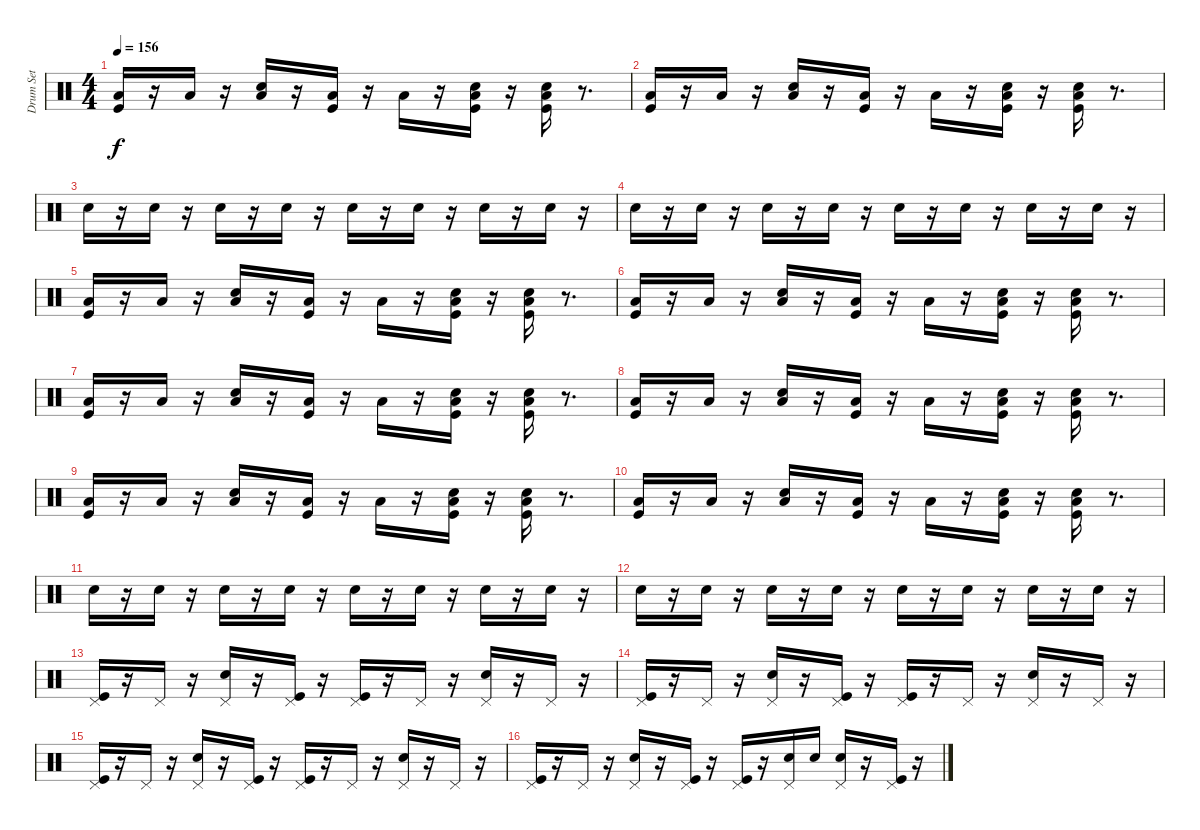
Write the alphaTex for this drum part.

\track ("Drum Set" "Drum Set") {instrument percussion}
\staff {score}
\articulation defaults
\ts (4 4)
\tempo 156
\clef neutral
\ks c
("Low Floor Tom (hit)" "Kick (hit)").16{dy f} r.16 "Low Floor Tom (hit)".16 r.16 ("Low Floor Tom (hit)" "Snare (hit) 2").16 r.16 ("Low Floor Tom (hit)" "Kick (hit)").16 r.16 "Low Floor Tom (hit)".16 r.16 ("Low Floor Tom (hit)" "Kick (hit)" "Snare (hit) 2").16 r.16 ("Low Floor Tom (hit)" "Kick (hit)" "Snare (hit) 2").16 r.8{d} |
("Low Floor Tom (hit)" "Kick (hit)").16 r.16 "Low Floor Tom (hit)".16 r.16 ("Low Floor Tom (hit)" "Snare (hit) 2").16 r.16 ("Low Floor Tom (hit)" "Kick (hit)").16 r.16 "Low Floor Tom (hit)".16 r.16 ("Low Floor Tom (hit)" "Kick (hit)" "Snare (hit) 2").16 r.16 ("Low Floor Tom (hit)" "Kick (hit)" "Snare (hit) 2").16 r.8{d} |
"Snare (hit) 2".16 r.16 "Snare (hit) 2".16 r.16 "Snare (hit) 2".16 r.16 "Snare (hit) 2".16 r.16 "Snare (hit) 2".16 r.16 "Snare (hit) 2".16 r.16 "Snare (hit) 2".16 r.16 "Snare (hit) 2".16 r.16 |
"Snare (hit) 2".16 r.16 "Snare (hit) 2".16 r.16 "Snare (hit) 2".16 r.16 "Snare (hit) 2".16 r.16 "Snare (hit) 2".16 r.16 "Snare (hit) 2".16 r.16 "Snare (hit) 2".16 r.16 "Snare (hit) 2".16 r.16 |
("Low Floor Tom (hit)" "Kick (hit)").16 r.16 "Low Floor Tom (hit)".16 r.16 ("Low Floor Tom (hit)" "Snare (hit) 2").16 r.16 ("Low Floor Tom (hit)" "Kick (hit)").16 r.16 "Low Floor Tom (hit)".16 r.16 ("Low Floor Tom (hit)" "Kick (hit)" "Snare (hit) 2").16 r.16 ("Low Floor Tom (hit)" "Kick (hit)" "Snare (hit) 2").16 r.8{d} |
("Low Floor Tom (hit)" "Kick (hit)").16 r.16 "Low Floor Tom (hit)".16 r.16 ("Low Floor Tom (hit)" "Snare (hit) 2").16 r.16 ("Low Floor Tom (hit)" "Kick (hit)").16 r.16 "Low Floor Tom (hit)".16 r.16 ("Low Floor Tom (hit)" "Kick (hit)" "Snare (hit) 2").16 r.16 ("Low Floor Tom (hit)" "Kick (hit)" "Snare (hit) 2").16 r.8{d} |
("Low Floor Tom (hit)" "Kick (hit)").16 r.16 "Low Floor Tom (hit)".16 r.16 ("Low Floor Tom (hit)" "Snare (hit) 2").16 r.16 ("Low Floor Tom (hit)" "Kick (hit)").16 r.16 "Low Floor Tom (hit)".16 r.16 ("Low Floor Tom (hit)" "Kick (hit)" "Snare (hit) 2").16 r.16 ("Low Floor Tom (hit)" "Kick (hit)" "Snare (hit) 2").16 r.8{d} |
("Low Floor Tom (hit)" "Kick (hit)").16 r.16 "Low Floor Tom (hit)".16 r.16 ("Low Floor Tom (hit)" "Snare (hit) 2").16 r.16 ("Low Floor Tom (hit)" "Kick (hit)").16 r.16 "Low Floor Tom (hit)".16 r.16 ("Low Floor Tom (hit)" "Kick (hit)" "Snare (hit) 2").16 r.16 ("Low Floor Tom (hit)" "Kick (hit)" "Snare (hit) 2").16 r.8{d} |
("Low Floor Tom (hit)" "Kick (hit)").16 r.16 "Low Floor Tom (hit)".16 r.16 ("Low Floor Tom (hit)" "Snare (hit) 2").16 r.16 ("Low Floor Tom (hit)" "Kick (hit)").16 r.16 "Low Floor Tom (hit)".16 r.16 ("Low Floor Tom (hit)" "Kick (hit)" "Snare (hit) 2").16 r.16 ("Low Floor Tom (hit)" "Kick (hit)" "Snare (hit) 2").16 r.8{d} |
("Low Floor Tom (hit)" "Kick (hit)").16 r.16 "Low Floor Tom (hit)".16 r.16 ("Low Floor Tom (hit)" "Snare (hit) 2").16 r.16 ("Low Floor Tom (hit)" "Kick (hit)").16 r.16 "Low Floor Tom (hit)".16 r.16 ("Low Floor Tom (hit)" "Kick (hit)" "Snare (hit) 2").16 r.16 ("Low Floor Tom (hit)" "Kick (hit)" "Snare (hit) 2").16 r.8{d} |
"Snare (hit) 2".16 r.16 "Snare (hit) 2".16 r.16 "Snare (hit) 2".16 r.16 "Snare (hit) 2".16 r.16 "Snare (hit) 2".16 r.16 "Snare (hit) 2".16 r.16 "Snare (hit) 2".16 r.16 "Snare (hit) 2".16 r.16 |
"Snare (hit) 2".16 r.16 "Snare (hit) 2".16 r.16 "Snare (hit) 2".16 r.16 "Snare (hit) 2".16 r.16 "Snare (hit) 2".16 r.16 "Snare (hit) 2".16 r.16 "Snare (hit) 2".16 r.16 "Snare (hit) 2".16 r.16 |
("Pedal Hi-Hat (hit)" "Kick (hit)").16 r.16 "Pedal Hi-Hat (hit)".16 r.16 ("Pedal Hi-Hat (hit)" "Snare (hit) 2").16 r.16 ("Pedal Hi-Hat (hit)" "Kick (hit)").16 r.16 ("Kick (hit)" "Pedal Hi-Hat (hit)").16 r.16 "Pedal Hi-Hat (hit)".16 r.16 ("Pedal Hi-Hat (hit)" "Snare (hit) 2").16 r.16 "Pedal Hi-Hat (hit)".16 r.16 |
("Pedal Hi-Hat (hit)" "Kick (hit)").16 r.16 "Pedal Hi-Hat (hit)".16 r.16 ("Pedal Hi-Hat (hit)" "Snare (hit) 2").16 r.16 ("Pedal Hi-Hat (hit)" "Kick (hit)").16 r.16 ("Kick (hit)" "Pedal Hi-Hat (hit)").16 r.16 "Pedal Hi-Hat (hit)".16 r.16 ("Pedal Hi-Hat (hit)" "Snare (hit) 2").16 r.16 "Pedal Hi-Hat (hit)".16 r.16 |
("Pedal Hi-Hat (hit)" "Kick (hit)").16 r.16 "Pedal Hi-Hat (hit)".16 r.16 ("Pedal Hi-Hat (hit)" "Snare (hit) 2").16 r.16 ("Pedal Hi-Hat (hit)" "Kick (hit)").16 r.16 ("Kick (hit)" "Pedal Hi-Hat (hit)").16 r.16 "Pedal Hi-Hat (hit)".16 r.16 ("Pedal Hi-Hat (hit)" "Snare (hit) 2").16 r.16 "Pedal Hi-Hat (hit)".16 r.16 |
("Pedal Hi-Hat (hit)" "Kick (hit)").16 r.16 "Pedal Hi-Hat (hit)".16 r.16 ("Pedal Hi-Hat (hit)" "Snare (hit) 2").16 r.16 ("Pedal Hi-Hat (hit)" "Kick (hit)").16 r.16 ("Kick (hit)" "Pedal Hi-Hat (hit)").16 r.16 ("Snare (hit) 2" "Pedal Hi-Hat (hit)").16 "Snare (hit) 2".16 ("Pedal Hi-Hat (hit)" "Snare (hit) 2").16 r.16 ("Kick (hit)" "Pedal Hi-Hat (hit)").16 r.16
